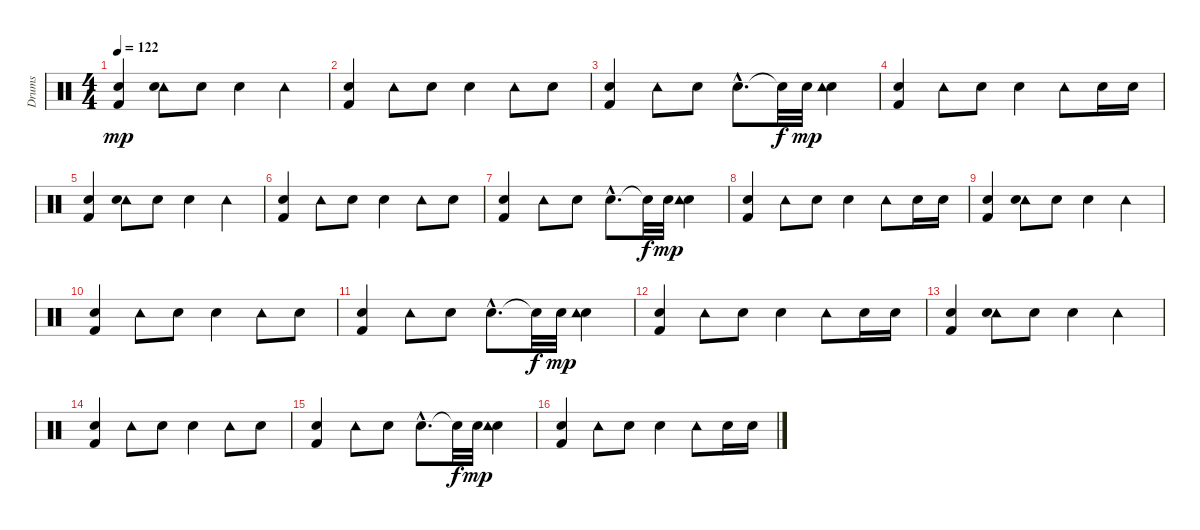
\track ("Drums" "Drums") {instrument percussion}
\staff {score}
\articulation defaults
\ts (4 4)
\tempo 122
\clef neutral
\ks c
("Kick (hit) 2" "Snare (hit) 2").4{dy mp} ("Tambourine (hit)" "Snare (hit) 2").8 "Snare (hit) 2".8 "Snare (hit) 2".4 "Tambourine (hit)".4 |
("Kick (hit) 2" "Snare (hit) 2").4 "Tambourine (hit)".8 "Snare (hit) 2".8 "Snare (hit) 2".4 "Tambourine (hit)".8 "Snare (hit) 2".8 |
("Kick (hit) 2" "Snare (hit) 2").4 "Tambourine (hit)".8 "Snare (hit) 2".8 "Snare (hit) 2"{hac}.8{d} "Snare (hit)"{t}.32{dy f} "Hand Clap (hit)".32{dy mp} ("Hand Clap (hit)" "Tambourine (hit)").4 |
("Kick (hit) 2" "Snare (hit) 2").4 "Tambourine (hit)".8 "Snare (hit) 2".8 "Snare (hit) 2".4 "Tambourine (hit)".8 "Snare (hit) 2".16 "Snare (hit) 2".16 |
("Kick (hit) 2" "Snare (hit) 2").4 ("Tambourine (hit)" "Snare (hit) 2").8 "Snare (hit) 2".8 "Snare (hit) 2".4 "Tambourine (hit)".4 |
("Kick (hit) 2" "Snare (hit) 2").4 "Tambourine (hit)".8 "Snare (hit) 2".8 "Snare (hit) 2".4 "Tambourine (hit)".8 "Snare (hit) 2".8 |
("Kick (hit) 2" "Snare (hit) 2").4 "Tambourine (hit)".8 "Snare (hit) 2".8 "Snare (hit) 2"{hac}.8{d} "Snare (hit)"{t}.32{dy f} "Hand Clap (hit)".32{dy mp} ("Hand Clap (hit)" "Tambourine (hit)").4 |
("Kick (hit) 2" "Snare (hit) 2").4 "Tambourine (hit)".8 "Snare (hit) 2".8 "Snare (hit) 2".4 "Tambourine (hit)".8 "Snare (hit) 2".16 "Snare (hit) 2".16 |
("Kick (hit) 2" "Snare (hit) 2").4 ("Tambourine (hit)" "Snare (hit) 2").8 "Snare (hit) 2".8 "Snare (hit) 2".4 "Tambourine (hit)".4 |
("Kick (hit) 2" "Snare (hit) 2").4 "Tambourine (hit)".8 "Snare (hit) 2".8 "Snare (hit) 2".4 "Tambourine (hit)".8 "Snare (hit) 2".8 |
("Kick (hit) 2" "Snare (hit) 2").4 "Tambourine (hit)".8 "Snare (hit) 2".8 "Snare (hit) 2"{hac}.8{d} "Snare (hit)"{t}.32{dy f} "Hand Clap (hit)".32{dy mp} ("Hand Clap (hit)" "Tambourine (hit)").4 |
("Kick (hit) 2" "Snare (hit) 2").4 "Tambourine (hit)".8 "Snare (hit) 2".8 "Snare (hit) 2".4 "Tambourine (hit)".8 "Snare (hit) 2".16 "Snare (hit) 2".16 |
("Kick (hit) 2" "Snare (hit) 2").4 ("Tambourine (hit)" "Snare (hit) 2").8 "Snare (hit) 2".8 "Snare (hit) 2".4 "Tambourine (hit)".4 |
("Kick (hit) 2" "Snare (hit) 2").4 "Tambourine (hit)".8 "Snare (hit) 2".8 "Snare (hit) 2".4 "Tambourine (hit)".8 "Snare (hit) 2".8 |
("Kick (hit) 2" "Snare (hit) 2").4 "Tambourine (hit)".8 "Snare (hit) 2".8 "Snare (hit) 2"{hac}.8{d} "Snare (hit)"{t}.32{dy f} "Hand Clap (hit)".32{dy mp} ("Hand Clap (hit)" "Tambourine (hit)").4 |
("Kick (hit) 2" "Snare (hit) 2").4 "Tambourine (hit)".8 "Snare (hit) 2".8 "Snare (hit) 2".4 "Tambourine (hit)".8 "Snare (hit) 2".16 "Snare (hit) 2".16
